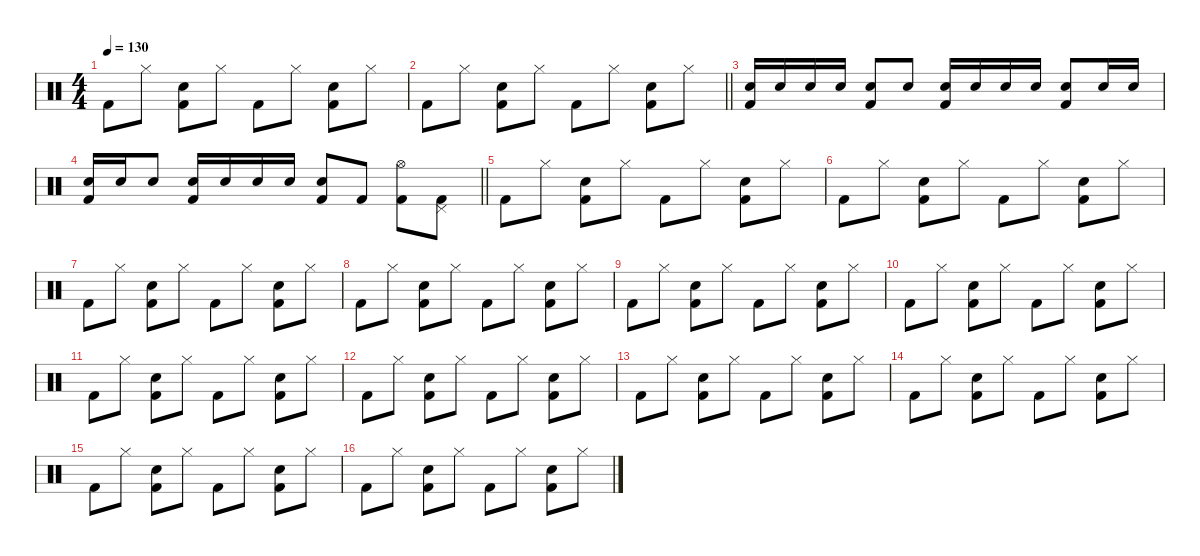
\defaultSystemsLayout 4
\hideDynamics
\bracketExtendMode nobrackets
\singleTrackTrackNamePolicy hidden
\multiTrackTrackNamePolicy hidden
\otherSystemsTrackNameOrientation horizontal
\track ("Percussion" "drm.") {defaultSystemsLayout 4 instrument percussion}
\staff {score}
\articulation defaults
\ts (4 4)
\tempo 130
\clef neutral
\ks c "Kick (hit) 2".8{dy f beam Down} "Hi-Hat (closed)".8{beam Down}
("Snare (hit) 2" "Kick (hit) 2").8{beam Down} "Hi-Hat (closed)".8{beam Down} "Kick (hit) 2".8{beam Down} "Hi-Hat (closed)".8{beam Down} ("Snare (hit) 2" "Kick (hit) 2").8{beam Down} "Hi-Hat (closed)".8{beam Down} |
\barLineRight lightlight "Kick (hit) 2".8{beam Down} "Hi-Hat (closed)".8{beam Down}
("Snare (hit) 2" "Kick (hit) 2").8{beam Down} "Hi-Hat (closed)".8{beam Down} "Kick (hit) 2".8{beam Down} "Hi-Hat (closed)".8{beam Down} ("Snare (hit) 2" "Kick (hit) 2").8{beam Down} "Hi-Hat (closed)".8{beam Down} |
("Snare (hit) 2" "Kick (hit) 2").16{beam Up} "Snare (hit) 2".16{beam Up} "Snare (hit) 2".16{beam Up} "Snare (hit) 2".16{beam Up} ("Snare (hit) 2" "Kick (hit) 2").8{beam Up} "Snare (hit) 2".8{beam Up} ("Snare (hit) 2" "Kick (hit) 2").16{beam Up} "Snare (hit) 2".16{beam Up} "Snare (hit) 2".16{beam Up} "Snare (hit) 2".16{beam Up} ("Snare (hit) 2" "Kick (hit) 2").8{beam Up} "Snare (hit) 2".16{beam Up} "Snare (hit) 2".16{beam Up} |
\barLineRight lightlight
("Snare (hit) 2" "Kick (hit) 2").16{beam Up} "Snare (hit) 2".16{beam Up} "Snare (hit) 2".8{beam Up} ("Snare (hit) 2" "Kick (hit) 2").16{beam Up} "Snare (hit) 2".16{beam Up} "Snare (hit) 2".16{beam Up} "Snare (hit) 2".16{beam Up} ("Snare (hit) 2" "Kick (hit) 2").8{beam Up} "Kick (hit) 2".8{beam Up} ("Hi-Hat (open)" "Kick (hit) 2").8{beam Down} ("Pedal Hi-Hat (hit)" "Kick (hit) 2").8{beam Down} |
"Kick (hit) 2".8{beam Down} "Hi-Hat (closed)".8{beam Down} ("Snare (hit) 2" "Kick (hit) 2").8{beam Down} "Hi-Hat (closed)".8{beam Down} "Kick (hit) 2".8{beam Down} "Hi-Hat (closed)".8{beam Down} ("Snare (hit) 2" "Kick (hit) 2").8{beam Down} "Hi-Hat (closed)".8{beam Down} |
"Kick (hit) 2".8{beam Down} "Hi-Hat (closed)".8{beam Down} ("Snare (hit) 2" "Kick (hit) 2").8{beam Down} "Hi-Hat (closed)".8{beam Down} "Kick (hit) 2".8{beam Down} "Hi-Hat (closed)".8{beam Down} ("Snare (hit) 2" "Kick (hit) 2").8{beam Down} "Hi-Hat (closed)".8{beam Down} |
"Kick (hit) 2".8{beam Down} "Hi-Hat (closed)".8{beam Down} ("Snare (hit) 2" "Kick (hit) 2").8{beam Down} "Hi-Hat (closed)".8{beam Down} "Kick (hit) 2".8{beam Down} "Hi-Hat (closed)".8{beam Down} ("Snare (hit) 2" "Kick (hit) 2").8{beam Down} "Hi-Hat (closed)".8{beam Down} |
"Kick (hit) 2".8{beam Down} "Hi-Hat (closed)".8{beam Down} ("Snare (hit) 2" "Kick (hit) 2").8{beam Down} "Hi-Hat (closed)".8{beam Down} "Kick (hit) 2".8{beam Down} "Hi-Hat (closed)".8{beam Down} ("Snare (hit) 2" "Kick (hit) 2").8{beam Down} "Hi-Hat (closed)".8{beam Down} |
"Kick (hit) 2".8{beam Down} "Hi-Hat (closed)".8{beam Down} ("Snare (hit) 2" "Kick (hit) 2").8{beam Down} "Hi-Hat (closed)".8{beam Down} "Kick (hit) 2".8{beam Down} "Hi-Hat (closed)".8{beam Down} ("Snare (hit) 2" "Kick (hit) 2").8{beam Down} "Hi-Hat (closed)".8{beam Down} |
"Kick (hit) 2".8{beam Down} "Hi-Hat (closed)".8{beam Down} ("Snare (hit) 2" "Kick (hit) 2").8{beam Down} "Hi-Hat (closed)".8{beam Down} "Kick (hit) 2".8{beam Down} "Hi-Hat (closed)".8{beam Down} ("Snare (hit) 2" "Kick (hit) 2").8{beam Down} "Hi-Hat (closed)".8{beam Down} |
"Kick (hit) 2".8{beam Down} "Hi-Hat (closed)".8{beam Down} ("Snare (hit) 2" "Kick (hit) 2").8{beam Down} "Hi-Hat (closed)".8{beam Down} "Kick (hit) 2".8{beam Down} "Hi-Hat (closed)".8{beam Down} ("Snare (hit) 2" "Kick (hit) 2").8{beam Down} "Hi-Hat (closed)".8{beam Down} |
"Kick (hit) 2".8{beam Down} "Hi-Hat (closed)".8{beam Down} ("Snare (hit) 2" "Kick (hit) 2").8{beam Down} "Hi-Hat (closed)".8{beam Down} "Kick (hit) 2".8{beam Down} "Hi-Hat (closed)".8{beam Down} ("Snare (hit) 2" "Kick (hit) 2").8{beam Down} "Hi-Hat (closed)".8{beam Down} |
"Kick (hit) 2".8{beam Down} "Hi-Hat (closed)".8{beam Down} ("Snare (hit) 2" "Kick (hit) 2").8{beam Down} "Hi-Hat (closed)".8{beam Down} "Kick (hit) 2".8{beam Down} "Hi-Hat (closed)".8{beam Down} ("Snare (hit) 2" "Kick (hit) 2").8{beam Down} "Hi-Hat (closed)".8{beam Down} |
"Kick (hit) 2".8{beam Down} "Hi-Hat (closed)".8{beam Down} ("Snare (hit) 2" "Kick (hit) 2").8{beam Down} "Hi-Hat (closed)".8{beam Down} "Kick (hit) 2".8{beam Down} "Hi-Hat (closed)".8{beam Down} ("Snare (hit) 2" "Kick (hit) 2").8{beam Down} "Hi-Hat (closed)".8{beam Down} |
"Kick (hit) 2".8{beam Down} "Hi-Hat (closed)".8{beam Down} ("Snare (hit) 2" "Kick (hit) 2").8{beam Down} "Hi-Hat (closed)".8{beam Down} "Kick (hit) 2".8{beam Down} "Hi-Hat (closed)".8{beam Down} ("Snare (hit) 2" "Kick (hit) 2").8{beam Down} "Hi-Hat (closed)".8{beam Down} |
"Kick (hit) 2".8{beam Down} "Hi-Hat (closed)".8{beam Down} ("Snare (hit) 2" "Kick (hit) 2").8{beam Down} "Hi-Hat (closed)".8{beam Down} "Kick (hit) 2".8{beam Down} "Hi-Hat (closed)".8{beam Down} ("Snare (hit) 2" "Kick (hit) 2").8{beam Down} "Hi-Hat (closed)".8{beam Down}
